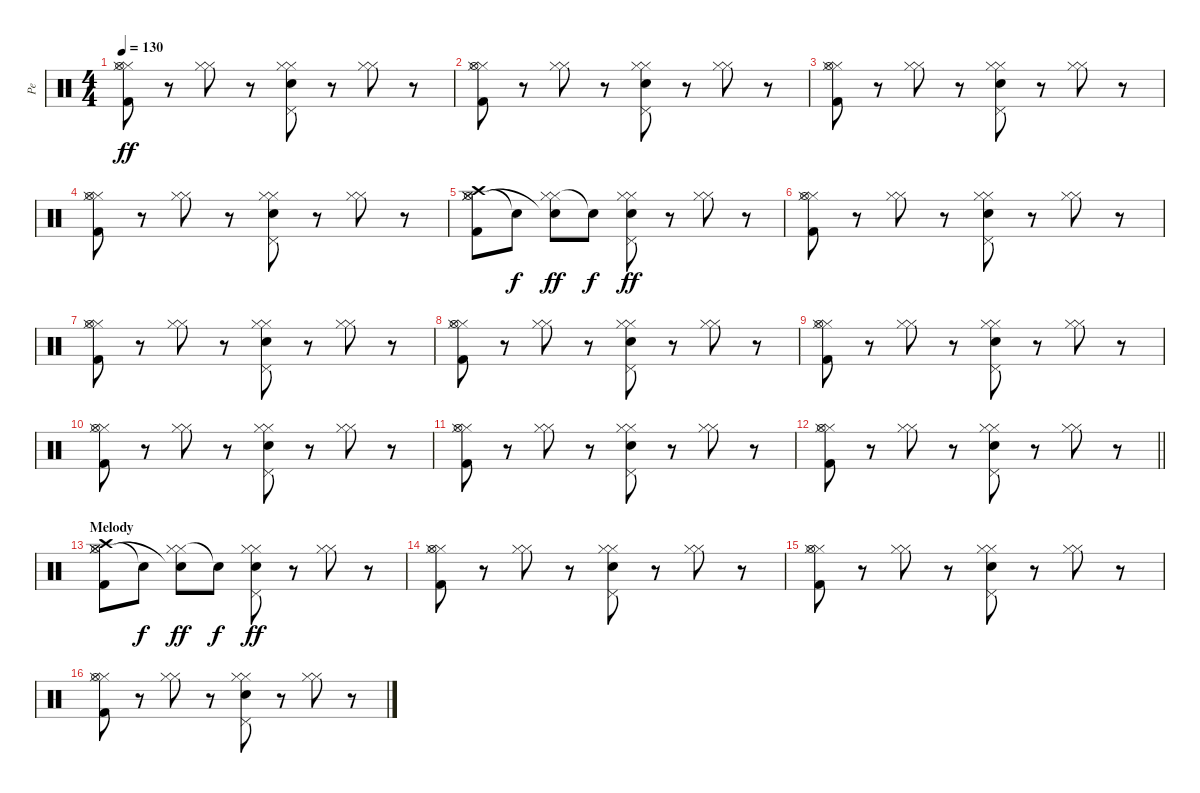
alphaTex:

\track ("Pe" "Pe") {instrument percussion}
\staff {score}
\articulation defaults
\ts (4 4)
\tempo 130
\clef neutral
\ks c
("Hi-Hat (closed)" "Hi-Hat (closed)" "Hi-Hat (open)" "Kick (hit) 2").8{dy ff} r.8 ("Hi-Hat (closed)" "Hi-Hat (closed)").8 r.8 ("Hi-Hat (closed)" "Hi-Hat (closed)" "Pedal Hi-Hat (hit)" "Electric Snare (hit)").8 r.8 ("Hi-Hat (closed)" "Hi-Hat (closed)").8 r.8 |
("Hi-Hat (closed)" "Hi-Hat (closed)" "Hi-Hat (open)" "Kick (hit) 2").8 r.8 ("Hi-Hat (closed)" "Hi-Hat (closed)").8 r.8 ("Hi-Hat (closed)" "Hi-Hat (closed)" "Pedal Hi-Hat (hit)" "Electric Snare (hit)").8 r.8 ("Hi-Hat (closed)" "Hi-Hat (closed)").8 r.8 |
("Hi-Hat (closed)" "Hi-Hat (closed)" "Hi-Hat (open)" "Kick (hit) 2").8 r.8 ("Hi-Hat (closed)" "Hi-Hat (closed)").8 r.8 ("Hi-Hat (closed)" "Hi-Hat (closed)" "Pedal Hi-Hat (hit)" "Electric Snare (hit)").8 r.8 ("Hi-Hat (closed)" "Hi-Hat (closed)").8 r.8 |
("Hi-Hat (closed)" "Hi-Hat (closed)" "Hi-Hat (open)" "Kick (hit) 2").8 r.8 ("Hi-Hat (closed)" "Hi-Hat (closed)").8 r.8 ("Hi-Hat (closed)" "Hi-Hat (closed)" "Pedal Hi-Hat (hit)" "Electric Snare (hit)").8 r.8 ("Hi-Hat (closed)" "Hi-Hat (closed)").8 r.8 |
("Hi-Hat (closed)" "Hi-Hat (closed)" "Hi-Hat (open)" "Crash high (hit)" "Kick (hit) 2").8 "Snare (hit)"{t}.8{dy f} ("Hi-Hat (closed)" "Hi-Hat (closed)" "Snare (hit)"{t}).8{dy ff} "Snare (hit)"{t}.8{dy f} ("Hi-Hat (closed)" "Hi-Hat (closed)" "Pedal Hi-Hat (hit)" "Electric Snare (hit)").8{dy ff} r.8 ("Hi-Hat (closed)" "Hi-Hat (closed)").8 r.8 |
("Hi-Hat (closed)" "Hi-Hat (closed)" "Hi-Hat (open)" "Kick (hit) 2").8 r.8 ("Hi-Hat (closed)" "Hi-Hat (closed)").8 r.8 ("Hi-Hat (closed)" "Hi-Hat (closed)" "Pedal Hi-Hat (hit)" "Electric Snare (hit)").8 r.8 ("Hi-Hat (closed)" "Hi-Hat (closed)").8 r.8 |
("Hi-Hat (closed)" "Hi-Hat (closed)" "Hi-Hat (open)" "Kick (hit) 2").8 r.8 ("Hi-Hat (closed)" "Hi-Hat (closed)").8 r.8 ("Hi-Hat (closed)" "Hi-Hat (closed)" "Pedal Hi-Hat (hit)" "Electric Snare (hit)").8 r.8 ("Hi-Hat (closed)" "Hi-Hat (closed)").8 r.8 |
("Hi-Hat (closed)" "Hi-Hat (closed)" "Hi-Hat (open)" "Kick (hit) 2").8 r.8 ("Hi-Hat (closed)" "Hi-Hat (closed)").8 r.8 ("Hi-Hat (closed)" "Hi-Hat (closed)" "Pedal Hi-Hat (hit)" "Electric Snare (hit)").8 r.8 ("Hi-Hat (closed)" "Hi-Hat (closed)").8 r.8 |
("Hi-Hat (closed)" "Hi-Hat (closed)" "Hi-Hat (open)" "Kick (hit) 2").8 r.8 ("Hi-Hat (closed)" "Hi-Hat (closed)").8 r.8 ("Hi-Hat (closed)" "Hi-Hat (closed)" "Pedal Hi-Hat (hit)" "Electric Snare (hit)").8 r.8 ("Hi-Hat (closed)" "Hi-Hat (closed)").8 r.8 |
("Hi-Hat (closed)" "Hi-Hat (closed)" "Hi-Hat (open)" "Kick (hit) 2").8 r.8 ("Hi-Hat (closed)" "Hi-Hat (closed)").8 r.8 ("Hi-Hat (closed)" "Hi-Hat (closed)" "Pedal Hi-Hat (hit)" "Electric Snare (hit)").8 r.8 ("Hi-Hat (closed)" "Hi-Hat (closed)").8 r.8 |
("Hi-Hat (closed)" "Hi-Hat (closed)" "Hi-Hat (open)" "Kick (hit) 2").8 r.8 ("Hi-Hat (closed)" "Hi-Hat (closed)").8 r.8 ("Hi-Hat (closed)" "Hi-Hat (closed)" "Pedal Hi-Hat (hit)" "Electric Snare (hit)").8 r.8 ("Hi-Hat (closed)" "Hi-Hat (closed)").8 r.8 |
\barLineRight lightlight
("Hi-Hat (closed)" "Hi-Hat (closed)" "Hi-Hat (open)" "Kick (hit) 2").8 r.8 ("Hi-Hat (closed)" "Hi-Hat (closed)").8 r.8 ("Hi-Hat (closed)" "Hi-Hat (closed)" "Pedal Hi-Hat (hit)" "Electric Snare (hit)").8 r.8 ("Hi-Hat (closed)" "Hi-Hat (closed)").8 r.8 |
\section ("" "Melody")
("Hi-Hat (closed)" "Hi-Hat (closed)" "Hi-Hat (open)" "Crash high (hit)" "Kick (hit) 2").8 "Snare (hit)"{t}.8{dy f} ("Hi-Hat (closed)" "Hi-Hat (closed)" "Snare (hit)"{t}).8{dy ff} "Snare (hit)"{t}.8{dy f} ("Hi-Hat (closed)" "Hi-Hat (closed)" "Pedal Hi-Hat (hit)" "Electric Snare (hit)").8{dy ff} r.8 ("Hi-Hat (closed)" "Hi-Hat (closed)").8 r.8 |
("Hi-Hat (closed)" "Hi-Hat (closed)" "Hi-Hat (open)" "Kick (hit) 2").8 r.8 ("Hi-Hat (closed)" "Hi-Hat (closed)").8 r.8 ("Hi-Hat (closed)" "Hi-Hat (closed)" "Pedal Hi-Hat (hit)" "Electric Snare (hit)").8 r.8 ("Hi-Hat (closed)" "Hi-Hat (closed)").8 r.8 |
("Hi-Hat (closed)" "Hi-Hat (closed)" "Hi-Hat (open)" "Kick (hit) 2").8 r.8 ("Hi-Hat (closed)" "Hi-Hat (closed)").8 r.8 ("Hi-Hat (closed)" "Hi-Hat (closed)" "Pedal Hi-Hat (hit)" "Electric Snare (hit)").8 r.8 ("Hi-Hat (closed)" "Hi-Hat (closed)").8 r.8 |
("Hi-Hat (closed)" "Hi-Hat (closed)" "Hi-Hat (open)" "Kick (hit) 2").8 r.8 ("Hi-Hat (closed)" "Hi-Hat (closed)").8 r.8 ("Hi-Hat (closed)" "Hi-Hat (closed)" "Pedal Hi-Hat (hit)" "Electric Snare (hit)").8 r.8 ("Hi-Hat (closed)" "Hi-Hat (closed)").8 r.8
